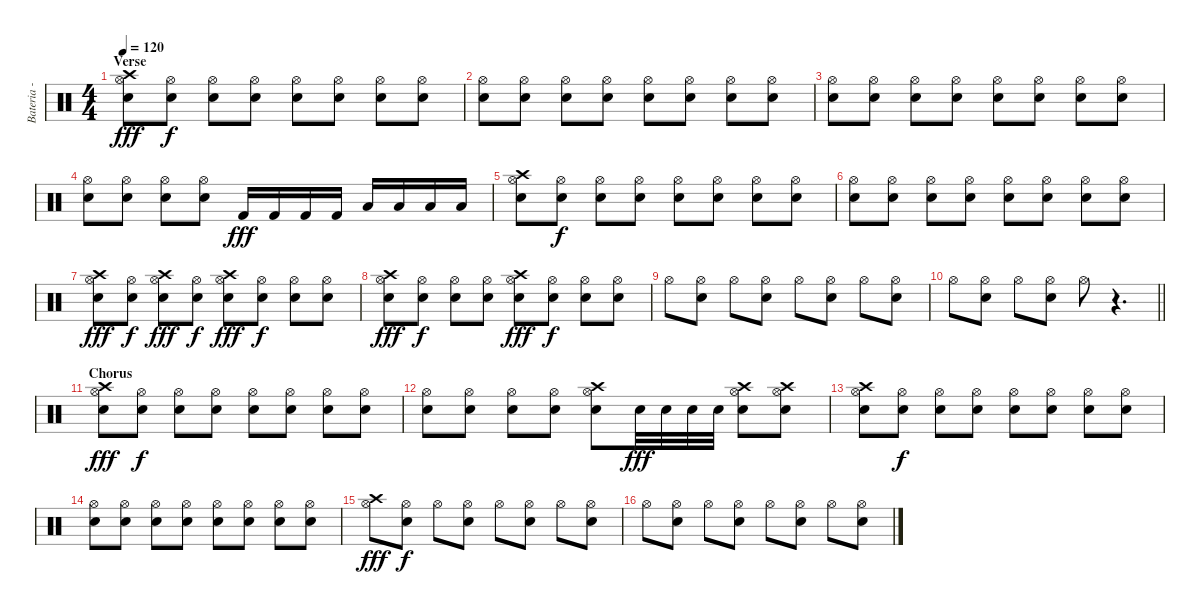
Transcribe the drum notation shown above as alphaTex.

\track ("Bateria - Larzon" "Bateria - ") {instrument percussion}
\staff {score}
\articulation defaults
\ts (4 4)
\section ("" "Verse")
\tempo 120
\clef neutral
\ks c
("Crash high (hit)" "Hi-Hat (open)" "Electric Snare (hit)").8{dy fff} ("Hi-Hat (open)" "Electric Snare (hit)").8{dy f} ("Hi-Hat (open)" "Electric Snare (hit)").8 ("Hi-Hat (open)" "Electric Snare (hit)").8 ("Hi-Hat (open)" "Electric Snare (hit)").8 ("Hi-Hat (open)" "Electric Snare (hit)").8 ("Hi-Hat (open)" "Electric Snare (hit)").8 ("Hi-Hat (open)" "Electric Snare (hit)").8 |
("Hi-Hat (open)" "Electric Snare (hit)").8 ("Hi-Hat (open)" "Electric Snare (hit)").8 ("Hi-Hat (open)" "Electric Snare (hit)").8 ("Hi-Hat (open)" "Electric Snare (hit)").8 ("Hi-Hat (open)" "Electric Snare (hit)").8 ("Hi-Hat (open)" "Electric Snare (hit)").8 ("Hi-Hat (open)" "Electric Snare (hit)").8 ("Hi-Hat (open)" "Electric Snare (hit)").8 |
("Hi-Hat (open)" "Electric Snare (hit)").8 ("Hi-Hat (open)" "Electric Snare (hit)").8 ("Hi-Hat (open)" "Electric Snare (hit)").8 ("Hi-Hat (open)" "Electric Snare (hit)").8 ("Hi-Hat (open)" "Electric Snare (hit)").8 ("Hi-Hat (open)" "Electric Snare (hit)").8 ("Hi-Hat (open)" "Electric Snare (hit)").8 ("Hi-Hat (open)" "Electric Snare (hit)").8 |
("Hi-Hat (open)" "Electric Snare (hit)").8 ("Hi-Hat (open)" "Electric Snare (hit)").8 ("Hi-Hat (open)" "Electric Snare (hit)").8 ("Hi-Hat (open)" "Electric Snare (hit)").8 "Kick (hit) 2".16{dy fff} "Kick (hit) 2".16 "Kick (hit) 2".16 "Kick (hit) 2".16 "Low Tom (hit)".16 "Low Tom (hit)".16 "Low Tom (hit)".16 "Low Tom (hit)".16 |
("Crash high (hit)" "Hi-Hat (open)" "Electric Snare (hit)").8 ("Hi-Hat (open)" "Electric Snare (hit)").8{dy f} ("Hi-Hat (open)" "Electric Snare (hit)").8 ("Hi-Hat (open)" "Electric Snare (hit)").8 ("Hi-Hat (open)" "Electric Snare (hit)").8 ("Hi-Hat (open)" "Electric Snare (hit)").8 ("Hi-Hat (open)" "Electric Snare (hit)").8 ("Hi-Hat (open)" "Electric Snare (hit)").8 |
("Hi-Hat (open)" "Electric Snare (hit)").8 ("Hi-Hat (open)" "Electric Snare (hit)").8 ("Hi-Hat (open)" "Electric Snare (hit)").8 ("Hi-Hat (open)" "Electric Snare (hit)").8 ("Hi-Hat (open)" "Electric Snare (hit)").8 ("Hi-Hat (open)" "Electric Snare (hit)").8 ("Hi-Hat (open)" "Electric Snare (hit)").8 ("Hi-Hat (open)" "Electric Snare (hit)").8 |
("Crash high (hit)" "Hi-Hat (open)" "Electric Snare (hit)").8{dy fff} ("Hi-Hat (open)" "Electric Snare (hit)").8{dy f} ("Crash high (hit)" "Hi-Hat (open)" "Electric Snare (hit)").8{dy fff} ("Hi-Hat (open)" "Electric Snare (hit)").8{dy f} ("Crash high (hit)" "Hi-Hat (open)" "Electric Snare (hit)").8{dy fff} ("Hi-Hat (open)" "Electric Snare (hit)").8{dy f} ("Hi-Hat (open)" "Electric Snare (hit)").8 ("Hi-Hat (open)" "Electric Snare (hit)").8 |
("Crash high (hit)" "Hi-Hat (open)" "Electric Snare (hit)").8{dy fff} ("Hi-Hat (open)" "Electric Snare (hit)").8{dy f} ("Hi-Hat (open)" "Electric Snare (hit)").8 ("Hi-Hat (open)" "Electric Snare (hit)").8 ("Crash high (hit)" "Hi-Hat (open)" "Electric Snare (hit)").8{dy fff} ("Hi-Hat (open)" "Electric Snare (hit)").8{dy f} ("Hi-Hat (open)" "Electric Snare (hit)").8 ("Hi-Hat (open)" "Electric Snare (hit)").8 |
"Hi-Hat (open)".8 ("Hi-Hat (open)" "Electric Snare (hit)").8 "Hi-Hat (open)".8 ("Hi-Hat (open)" "Electric Snare (hit)").8 "Hi-Hat (open)".8 ("Hi-Hat (open)" "Electric Snare (hit)").8 "Hi-Hat (open)".8 ("Hi-Hat (open)" "Electric Snare (hit)").8 |
\barLineRight lightlight "Hi-Hat (open)".8
("Hi-Hat (open)" "Electric Snare (hit)").8 "Hi-Hat (open)".8 ("Hi-Hat (open)" "Electric Snare (hit)").8 "Hi-Hat (open)".8 r.4{d} |
\section ("" "Chorus")
("Crash high (hit)" "Hi-Hat (open)" "Electric Snare (hit)").8{dy fff} ("Hi-Hat (open)" "Electric Snare (hit)").8{dy f} ("Hi-Hat (open)" "Electric Snare (hit)").8 ("Hi-Hat (open)" "Electric Snare (hit)").8 ("Hi-Hat (open)" "Electric Snare (hit)").8 ("Hi-Hat (open)" "Electric Snare (hit)").8 ("Hi-Hat (open)" "Electric Snare (hit)").8 ("Hi-Hat (open)" "Electric Snare (hit)").8 |
("Hi-Hat (open)" "Electric Snare (hit)").8 ("Hi-Hat (open)" "Electric Snare (hit)").8 ("Hi-Hat (open)" "Electric Snare (hit)").8 ("Hi-Hat (open)" "Electric Snare (hit)").8 ("Crash high (hit)" "Hi-Hat (open)" "Electric Snare (hit)").8 "Snare (hit) 2".32{dy fff} "Snare (hit) 2".32 "Snare (hit) 2".32 "Snare (hit) 2".32 ("Crash high (hit)" "Hi-Hat (open)" "Electric Snare (hit)").8 ("Crash high (hit)" "Hi-Hat (open)" "Electric Snare (hit)").8 |
("Crash high (hit)" "Hi-Hat (open)" "Electric Snare (hit)").8 ("Hi-Hat (open)" "Electric Snare (hit)").8{dy f} ("Hi-Hat (open)" "Electric Snare (hit)").8 ("Hi-Hat (open)" "Electric Snare (hit)").8 ("Hi-Hat (open)" "Electric Snare (hit)").8 ("Hi-Hat (open)" "Electric Snare (hit)").8 ("Hi-Hat (open)" "Electric Snare (hit)").8 ("Hi-Hat (open)" "Electric Snare (hit)").8 |
("Hi-Hat (open)" "Electric Snare (hit)").8 ("Hi-Hat (open)" "Electric Snare (hit)").8 ("Hi-Hat (open)" "Electric Snare (hit)").8 ("Hi-Hat (open)" "Electric Snare (hit)").8 ("Hi-Hat (open)" "Electric Snare (hit)").8 ("Hi-Hat (open)" "Electric Snare (hit)").8 ("Hi-Hat (open)" "Electric Snare (hit)").8 ("Hi-Hat (open)" "Electric Snare (hit)").8 |
("Crash high (hit)" "Hi-Hat (open)").8{dy fff} ("Hi-Hat (open)" "Electric Snare (hit)").8{dy f} "Hi-Hat (open)".8 ("Hi-Hat (open)" "Electric Snare (hit)").8 "Hi-Hat (open)".8 ("Hi-Hat (open)" "Electric Snare (hit)").8 "Hi-Hat (open)".8 ("Hi-Hat (open)" "Electric Snare (hit)").8 |
"Hi-Hat (open)".8 ("Hi-Hat (open)" "Electric Snare (hit)").8 "Hi-Hat (open)".8 ("Hi-Hat (open)" "Electric Snare (hit)").8 "Hi-Hat (open)".8 ("Hi-Hat (open)" "Electric Snare (hit)").8 "Hi-Hat (open)".8 ("Hi-Hat (open)" "Electric Snare (hit)").8
